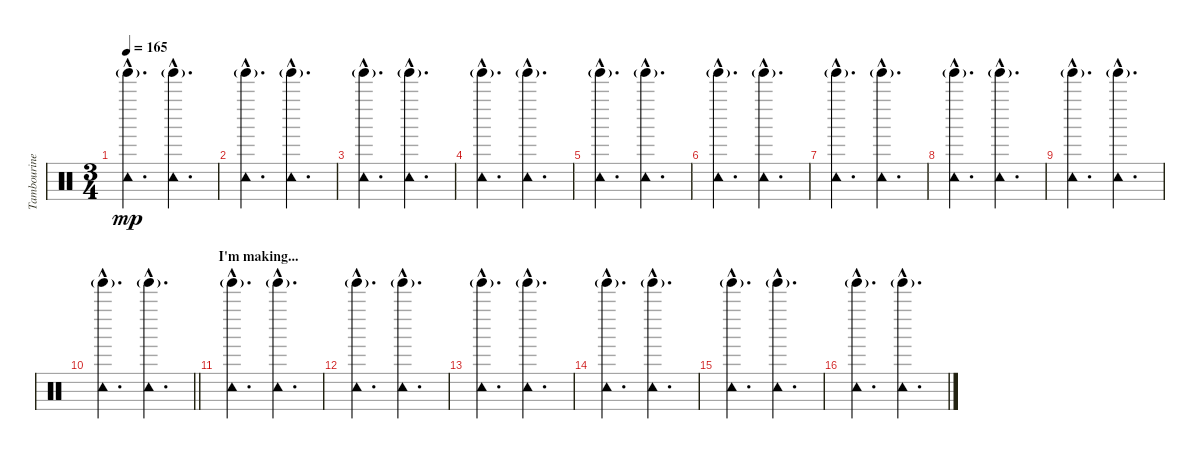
\track ("Tambourine" "Tambourine") {instrument percussion}
\staff {score}
\articulation defaults
\ts (3 4)
\tempo 165
\clef neutral
\ks c
("Tambourine (hit)"{hac} "Tinkle Bell (hit)"{g}).4{d dy mp} ("Tambourine (hit)"{hac} "Tinkle Bell (hit)"{g}).4{d} |
("Tambourine (hit)"{hac} "Tinkle Bell (hit)"{g}).4{d} ("Tambourine (hit)"{hac} "Tinkle Bell (hit)"{g}).4{d} |
("Tambourine (hit)"{hac} "Tinkle Bell (hit)"{g}).4{d} ("Tambourine (hit)"{hac} "Tinkle Bell (hit)"{g}).4{d} |
("Tambourine (hit)"{hac} "Tinkle Bell (hit)"{g}).4{d} ("Tambourine (hit)"{hac} "Tinkle Bell (hit)"{g}).4{d} |
("Tambourine (hit)"{hac} "Tinkle Bell (hit)"{g}).4{d} ("Tambourine (hit)"{hac} "Tinkle Bell (hit)"{g}).4{d} |
("Tambourine (hit)"{hac} "Tinkle Bell (hit)"{g}).4{d} ("Tambourine (hit)"{hac} "Tinkle Bell (hit)"{g}).4{d} |
("Tambourine (hit)"{hac} "Tinkle Bell (hit)"{g}).4{d} ("Tambourine (hit)"{hac} "Tinkle Bell (hit)"{g}).4{d} |
("Tambourine (hit)"{hac} "Tinkle Bell (hit)"{g}).4{d} ("Tambourine (hit)"{hac} "Tinkle Bell (hit)"{g}).4{d} |
("Tambourine (hit)"{hac} "Tinkle Bell (hit)"{g}).4{d} ("Tambourine (hit)"{hac} "Tinkle Bell (hit)"{g}).4{d} |
\barLineRight lightlight
("Tambourine (hit)"{hac} "Tinkle Bell (hit)"{g}).4{d} ("Tambourine (hit)"{hac} "Tinkle Bell (hit)"{g}).4{d} |
\section ("" "I'm making...")
("Tambourine (hit)"{hac} "Tinkle Bell (hit)"{g}).4{d} ("Tambourine (hit)"{hac} "Tinkle Bell (hit)"{g}).4{d} |
("Tambourine (hit)"{hac} "Tinkle Bell (hit)"{g}).4{d} ("Tambourine (hit)"{hac} "Tinkle Bell (hit)"{g}).4{d} |
("Tambourine (hit)"{hac} "Tinkle Bell (hit)"{g}).4{d} ("Tambourine (hit)"{hac} "Tinkle Bell (hit)"{g}).4{d} |
("Tambourine (hit)"{hac} "Tinkle Bell (hit)"{g}).4{d} ("Tambourine (hit)"{hac} "Tinkle Bell (hit)"{g}).4{d} |
("Tambourine (hit)"{hac} "Tinkle Bell (hit)"{g}).4{d} ("Tambourine (hit)"{hac} "Tinkle Bell (hit)"{g}).4{d} |
("Tambourine (hit)"{hac} "Tinkle Bell (hit)"{g}).4{d} ("Tambourine (hit)"{hac} "Tinkle Bell (hit)"{g}).4{d}
